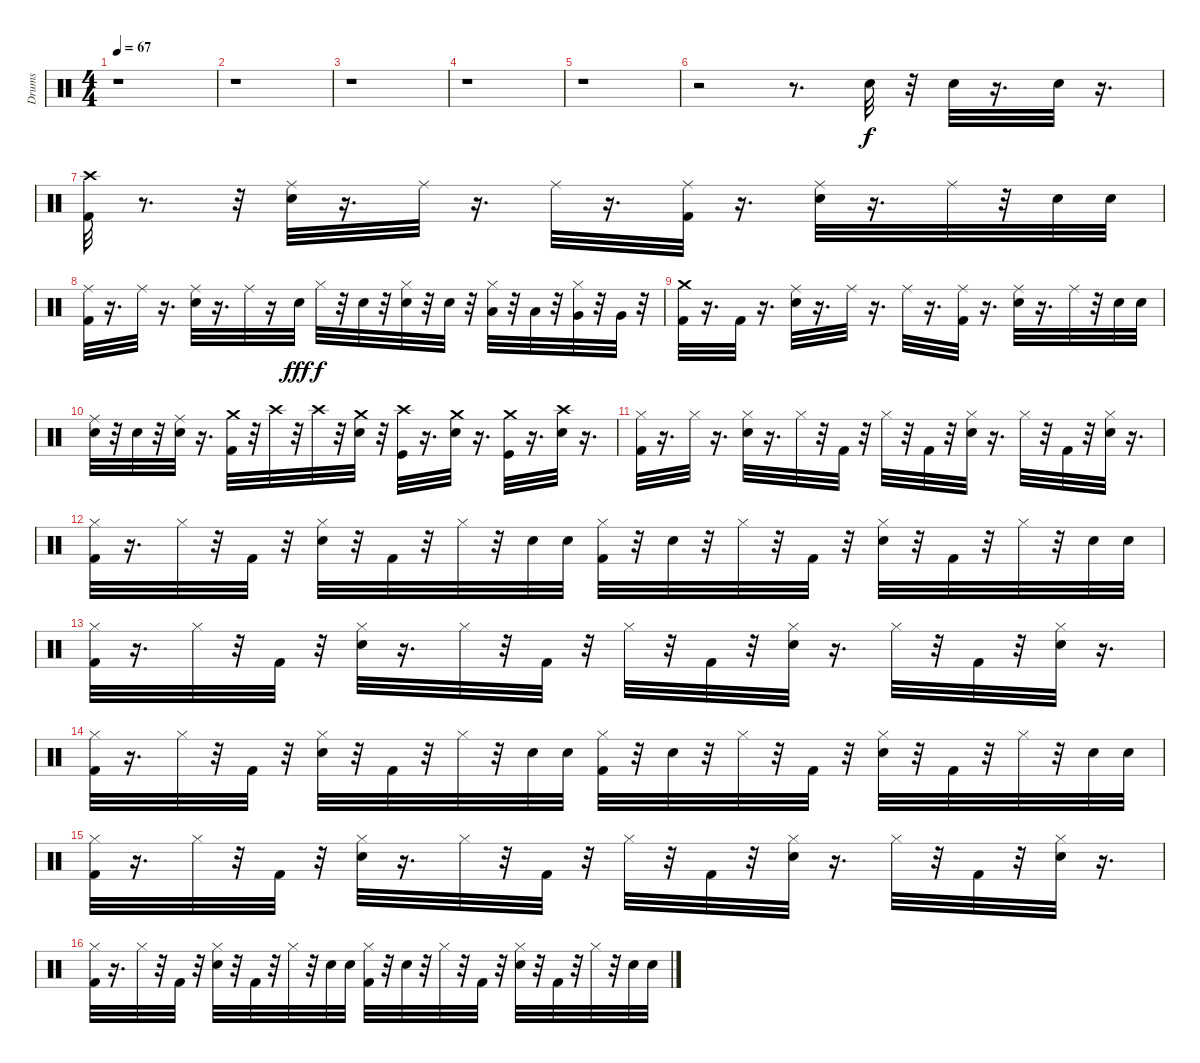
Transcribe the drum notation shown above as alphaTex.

\track ("Drums" "Drums") {instrument percussion}
\staff {score}
\articulation defaults
\ts (4 4)
\tempo 67
\clef neutral
\ks c
r.1{dy mf} |
r.1 |
r.1 |
r.1 |
r.1 |
r.2 r.8{d} "Snare (hit) 2".32{dy f} r.32 "Snare (hit) 2".32 r.16{d} "Snare (hit) 2".32 r.16{d} |
("Kick (hit) 2" "Crash high (hit)").32 r.8{d} r.32 ("Snare (hit) 2" "Ride (middle)").32 r.16{d} "Ride (middle)".32 r.16{d} "Ride (middle)".32 r.16{d} ("Kick (hit) 2" "Ride (middle)").32 r.16{d} ("Snare (hit) 2" "Ride (middle)").32 r.16{d} "Ride (middle)".32 r.32 "Snare (hit) 2".32 "Snare (hit) 2".32 |
("Kick (hit) 2" "Ride (middle)").32 r.16{d} "Ride (middle)".32 r.16{d} ("Snare (hit) 2" "Ride (middle)").32 r.16{d} "Ride (middle)".32 r.16 "Snare (hit) 2".32{dy fff} "Hi-Hat (closed)".32{dy f} r.32 "Snare (hit) 2".32 r.32 ("Snare (hit) 2" "Hi-Hat (closed)").32 r.32 "Snare (hit) 2".32 r.32 ("Low Tom (hit)" "Hi-Hat (closed)").32 r.32 "Low Tom (hit)".32 r.32 ("Very Low Tom (hit)" "Hi-Hat (closed)").32 r.32 "Very Low Tom (hit)".32 r.32 |
("Crash medium (hit)" "Kick (hit) 2").32 r.16{d} "Kick (hit) 2".32 r.16{d} ("Ride (middle)" "Snare (hit) 2").32 r.16{d} "Ride (middle)".32 r.16{d} "Ride (middle)".32 r.16{d} ("Ride (middle)" "Kick (hit) 2").32 r.16{d} ("Snare (hit) 2" "Ride (middle)").32 r.16{d} "Ride (middle)".32 r.32 "Snare (hit) 2".32 "Snare (hit) 2".32 |
("Snare (hit) 2" "Ride (middle)").32 r.32 "Snare (hit) 2".32 r.32 ("Snare (hit) 2" "Ride (middle)").32 r.16{d} ("Crash medium (hit)" "Kick (hit) 2").32 r.32 "Crash high (hit)".32 r.32 "Crash high (hit)".32 r.32 ("Snare (hit) 2" "Crash medium (hit)").32 r.32 ("Crash high (hit)" "Kick (hit)").32 r.16{d} ("Crash medium (hit)" "Snare (hit) 2").32 r.16{d} ("Crash medium (hit)" "Kick (hit)").32 r.16{d} ("Crash high (hit)" "Snare (hit) 2").32 r.16{d} |
("Kick (hit) 2" "Hi-Hat (closed)").32 r.16{d} "Hi-Hat (closed)".32 r.16{d} ("Snare (hit) 2" "Hi-Hat (closed)").32 r.16{d} "Hi-Hat (closed)".32 r.32 "Kick (hit) 2".32 r.32 "Hi-Hat (closed)".32 r.32 "Kick (hit) 2".32 r.32 ("Snare (hit) 2" "Hi-Hat (closed)").32 r.16{d} "Hi-Hat (closed)".32 r.32 "Kick (hit) 2".32 r.32 ("Snare (hit) 2" "Hi-Hat (closed)").32 r.16{d} |
("Kick (hit) 2" "Hi-Hat (closed)").32 r.16{d} "Hi-Hat (closed)".32 r.32 "Kick (hit) 2".32 r.32 ("Snare (hit) 2" "Hi-Hat (closed)").32 r.32 "Kick (hit) 2".32 r.32 "Hi-Hat (closed)".32 r.32 "Snare (hit) 2".32 "Snare (hit) 2".32 ("Kick (hit) 2" "Hi-Hat (closed)").32 r.32 "Snare (hit) 2".32 r.32 "Hi-Hat (closed)".32 r.32 "Kick (hit) 2".32 r.32 ("Snare (hit) 2" "Hi-Hat (closed)").32 r.32 "Kick (hit) 2".32 r.32 "Hi-Hat (closed)".32 r.32 "Snare (hit) 2".32 "Snare (hit) 2".32 |
("Kick (hit) 2" "Hi-Hat (closed)").32 r.16{d} "Hi-Hat (closed)".32 r.32 "Kick (hit) 2".32 r.32 ("Snare (hit) 2" "Hi-Hat (closed)").32 r.16{d} "Hi-Hat (closed)".32 r.32 "Kick (hit) 2".32 r.32 "Hi-Hat (closed)".32 r.32 "Kick (hit) 2".32 r.32 ("Snare (hit) 2" "Hi-Hat (closed)").32 r.16{d} "Hi-Hat (closed)".32 r.32 "Kick (hit) 2".32 r.32 ("Snare (hit) 2" "Hi-Hat (closed)").32 r.16{d} |
("Kick (hit) 2" "Hi-Hat (closed)").32 r.16{d} "Hi-Hat (closed)".32 r.32 "Kick (hit) 2".32 r.32 ("Snare (hit) 2" "Hi-Hat (closed)").32 r.32 "Kick (hit) 2".32 r.32 "Hi-Hat (closed)".32 r.32 "Snare (hit) 2".32 "Snare (hit) 2".32 ("Kick (hit) 2" "Hi-Hat (closed)").32 r.32 "Snare (hit) 2".32 r.32 "Hi-Hat (closed)".32 r.32 "Kick (hit) 2".32 r.32 ("Snare (hit) 2" "Hi-Hat (closed)").32 r.32 "Kick (hit) 2".32 r.32 "Hi-Hat (closed)".32 r.32 "Snare (hit) 2".32 "Snare (hit) 2".32 |
("Kick (hit) 2" "Hi-Hat (closed)").32 r.16{d} "Hi-Hat (closed)".32 r.32 "Kick (hit) 2".32 r.32 ("Snare (hit) 2" "Hi-Hat (closed)").32 r.16{d} "Hi-Hat (closed)".32 r.32 "Kick (hit) 2".32 r.32 "Hi-Hat (closed)".32 r.32 "Kick (hit) 2".32 r.32 ("Snare (hit) 2" "Hi-Hat (closed)").32 r.16{d} "Hi-Hat (closed)".32 r.32 "Kick (hit) 2".32 r.32 ("Snare (hit) 2" "Hi-Hat (closed)").32 r.16{d} |
("Kick (hit) 2" "Hi-Hat (closed)").32 r.16{d} "Hi-Hat (closed)".32 r.32 "Kick (hit) 2".32 r.32 ("Snare (hit) 2" "Hi-Hat (closed)").32 r.32 "Kick (hit) 2".32 r.32 "Hi-Hat (closed)".32 r.32 "Snare (hit) 2".32 "Snare (hit) 2".32 ("Kick (hit) 2" "Hi-Hat (closed)").32 r.32 "Snare (hit) 2".32 r.32 "Hi-Hat (closed)".32 r.32 "Kick (hit) 2".32 r.32 ("Snare (hit) 2" "Hi-Hat (closed)").32 r.32 "Kick (hit) 2".32 r.32 "Hi-Hat (closed)".32 r.32 "Snare (hit) 2".32 "Snare (hit) 2".32
